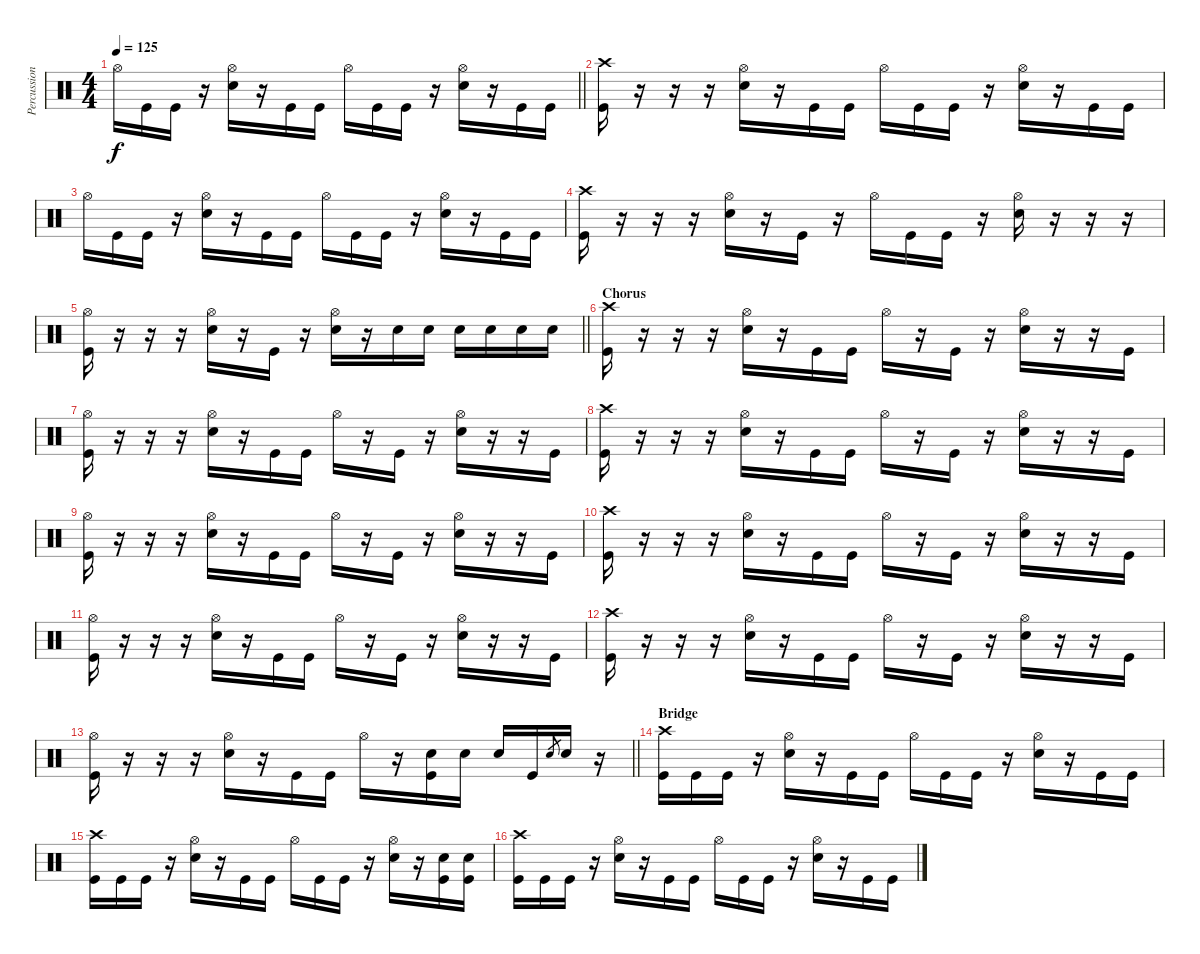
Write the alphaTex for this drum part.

\track ("Percussion" "Percussion") {instrument percussion}
\staff {score}
\articulation defaults
\ts (4 4)
\tempo 125
\clef neutral
\barLineRight lightlight
\ks c "Hi-Hat (open)".16{dy f} "Kick (hit)".16 "Kick (hit)".16
r.16 ("Hi-Hat (open)" "Electric Snare (hit)").16 r.16 "Kick (hit)".16 "Kick (hit)".16 "Hi-Hat (open)".16 "Kick (hit)".16 "Kick (hit)".16 r.16 ("Hi-Hat (open)" "Electric Snare (hit)").16 r.16 "Kick (hit)".16 "Kick (hit)".16 |
("Crash high (hit)" "Kick (hit)").16 r.16 r.16 r.16 ("Hi-Hat (open)" "Electric Snare (hit)").16 r.16 "Kick (hit)".16 "Kick (hit)".16 "Hi-Hat (open)".16 "Kick (hit)".16 "Kick (hit)".16 r.16 ("Hi-Hat (open)" "Electric Snare (hit)").16 r.16 "Kick (hit)".16 "Kick (hit)".16 |
"Hi-Hat (open)".16 "Kick (hit)".16 "Kick (hit)".16 r.16 ("Hi-Hat (open)" "Electric Snare (hit)").16 r.16 "Kick (hit)".16 "Kick (hit)".16 "Hi-Hat (open)".16 "Kick (hit)".16 "Kick (hit)".16 r.16 ("Hi-Hat (open)" "Electric Snare (hit)").16 r.16 "Kick (hit)".16 "Kick (hit)".16 |
("Crash high (hit)" "Kick (hit)").16 r.16 r.16 r.16 ("Hi-Hat (open)" "Electric Snare (hit)").16 r.16 "Kick (hit)".16 r.16 "Hi-Hat (open)".16 "Kick (hit)".16 "Kick (hit)".16 r.16 ("Hi-Hat (open)" "Electric Snare (hit)").16 r.16 r.16 r.16 |
\barLineRight lightlight
("Hi-Hat (open)" "Kick (hit)").16 r.16 r.16 r.16 ("Hi-Hat (open)" "Electric Snare (hit)").16 r.16 "Kick (hit)".16 r.16 ("Hi-Hat (open)" "Electric Snare (hit)").16 r.16 "Electric Snare (hit)".16 "Electric Snare (hit)".16 "Electric Snare (hit)".16 "Electric Snare (hit)".16 "Electric Snare (hit)".16 "Electric Snare (hit)".16 |
\section ("" "Chorus")
("Crash high (hit)" "Kick (hit)").16 r.16 r.16 r.16 ("Hi-Hat (open)" "Electric Snare (hit)").16 r.16 "Kick (hit)".16 "Kick (hit)".16 "Hi-Hat (open)".16 r.16 "Kick (hit)".16 r.16 ("Hi-Hat (open)" "Electric Snare (hit)").16 r.16 r.16 "Kick (hit)".16 |
("Hi-Hat (open)" "Kick (hit)").16 r.16 r.16 r.16 ("Hi-Hat (open)" "Electric Snare (hit)").16 r.16 "Kick (hit)".16 "Kick (hit)".16 "Hi-Hat (open)".16 r.16 "Kick (hit)".16 r.16 ("Hi-Hat (open)" "Electric Snare (hit)").16 r.16 r.16 "Kick (hit)".16 |
("Crash high (hit)" "Kick (hit)").16 r.16 r.16 r.16 ("Hi-Hat (open)" "Electric Snare (hit)").16 r.16 "Kick (hit)".16 "Kick (hit)".16 "Hi-Hat (open)".16 r.16 "Kick (hit)".16 r.16 ("Hi-Hat (open)" "Electric Snare (hit)").16 r.16 r.16 "Kick (hit)".16 |
("Hi-Hat (open)" "Kick (hit)").16 r.16 r.16 r.16 ("Hi-Hat (open)" "Electric Snare (hit)").16 r.16 "Kick (hit)".16 "Kick (hit)".16 "Hi-Hat (open)".16 r.16 "Kick (hit)".16 r.16 ("Hi-Hat (open)" "Electric Snare (hit)").16 r.16 r.16 "Kick (hit)".16 |
("Crash high (hit)" "Kick (hit)").16 r.16 r.16 r.16 ("Hi-Hat (open)" "Electric Snare (hit)").16 r.16 "Kick (hit)".16 "Kick (hit)".16 "Hi-Hat (open)".16 r.16 "Kick (hit)".16 r.16 ("Hi-Hat (open)" "Electric Snare (hit)").16 r.16 r.16 "Kick (hit)".16 |
("Hi-Hat (open)" "Kick (hit)").16 r.16 r.16 r.16 ("Hi-Hat (open)" "Electric Snare (hit)").16 r.16 "Kick (hit)".16 "Kick (hit)".16 "Hi-Hat (open)".16 r.16 "Kick (hit)".16 r.16 ("Hi-Hat (open)" "Electric Snare (hit)").16 r.16 r.16 "Kick (hit)".16 |
("Crash high (hit)" "Kick (hit)").16 r.16 r.16 r.16 ("Hi-Hat (open)" "Electric Snare (hit)").16 r.16 "Kick (hit)".16 "Kick (hit)".16 "Hi-Hat (open)".16 r.16 "Kick (hit)".16 r.16 ("Hi-Hat (open)" "Electric Snare (hit)").16 r.16 r.16 "Kick (hit)".16 |
\barLineRight lightlight
("Hi-Hat (open)" "Kick (hit)").16 r.16 r.16 r.16 ("Hi-Hat (open)" "Electric Snare (hit)").16 r.16 "Kick (hit)".16 "Kick (hit)".16 "Hi-Hat (open)".16 r.16 ("Electric Snare (hit)" "Kick (hit)").16 "Electric Snare (hit)".16 "Electric Snare (hit)".16 "Kick (hit)".16 "Electric Snare (hit)".8{gr} "Electric Snare (hit)".16 r.16 |
\section ("" "Bridge")
("Crash high (hit)" "Kick (hit)").16 "Kick (hit)".16 "Kick (hit)".16 r.16 ("Hi-Hat (open)" "Electric Snare (hit)").16 r.16 "Kick (hit)".16 "Kick (hit)".16 "Hi-Hat (open)".16 "Kick (hit)".16 "Kick (hit)".16 r.16 ("Hi-Hat (open)" "Electric Snare (hit)").16 r.16 "Kick (hit)".16 "Kick (hit)".16 |
("Crash high (hit)" "Kick (hit)").16 "Kick (hit)".16 "Kick (hit)".16 r.16 ("Hi-Hat (open)" "Electric Snare (hit)").16 r.16 "Kick (hit)".16 "Kick (hit)".16 "Hi-Hat (open)".16 "Kick (hit)".16 "Kick (hit)".16 r.16 ("Hi-Hat (open)" "Electric Snare (hit)").16 r.16 ("Electric Snare (hit)" "Kick (hit)").16 ("Electric Snare (hit)" "Kick (hit)").16 |
("Crash high (hit)" "Kick (hit)").16 "Kick (hit)".16 "Kick (hit)".16 r.16 ("Hi-Hat (open)" "Electric Snare (hit)").16 r.16 "Kick (hit)".16 "Kick (hit)".16 "Hi-Hat (open)".16 "Kick (hit)".16 "Kick (hit)".16 r.16 ("Hi-Hat (open)" "Electric Snare (hit)").16 r.16 "Kick (hit)".16 "Kick (hit)".16
